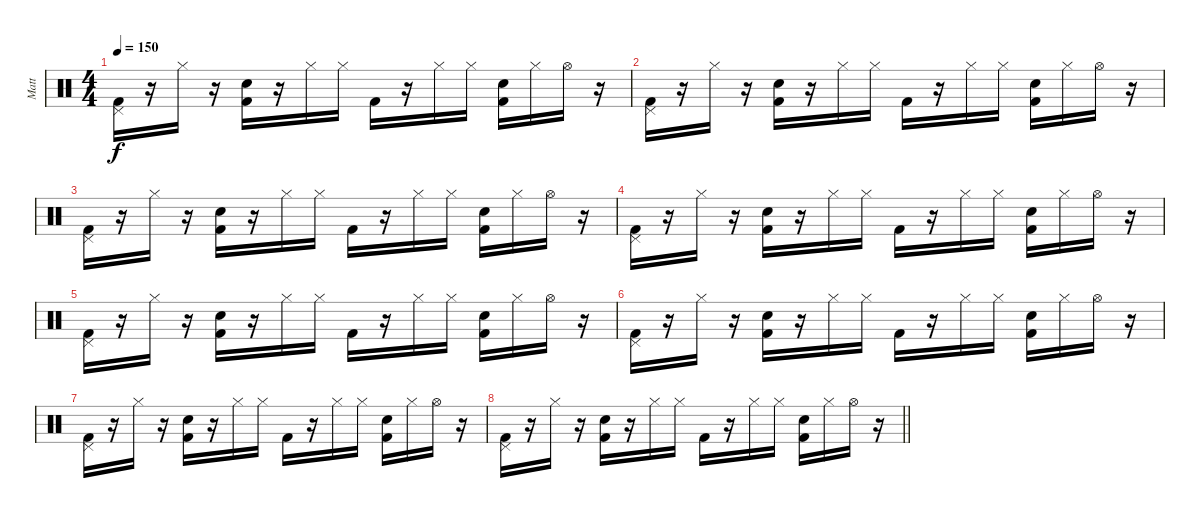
\track ("Matt" "Matt") {instrument percussion}
\staff {score}
\articulation defaults
\ts (4 4)
\tempo 150
\clef neutral
\ks c
("Pedal Hi-Hat (hit)" "Kick (hit) 2").16{dy f} r.16 "Hi-Hat (closed)".16 r.16 ("Snare (hit) 2" "Kick (hit) 2").16 r.16 "Hi-Hat (closed)".16 "Hi-Hat (closed)".16 "Kick (hit) 2".16 r.16 "Hi-Hat (closed)".16 "Hi-Hat (closed)".16 ("Snare (hit) 2" "Kick (hit) 2").16 "Hi-Hat (closed)".16 "Hi-Hat (open)".16 r.16 |
("Pedal Hi-Hat (hit)" "Kick (hit) 2").16 r.16 "Hi-Hat (closed)".16 r.16 ("Snare (hit) 2" "Kick (hit) 2").16 r.16 "Hi-Hat (closed)".16 "Hi-Hat (closed)".16 "Kick (hit) 2".16 r.16 "Hi-Hat (closed)".16 "Hi-Hat (closed)".16 ("Snare (hit) 2" "Kick (hit) 2").16 "Hi-Hat (closed)".16 "Hi-Hat (open)".16 r.16 |
("Pedal Hi-Hat (hit)" "Kick (hit) 2").16 r.16 "Hi-Hat (closed)".16 r.16 ("Snare (hit) 2" "Kick (hit) 2").16 r.16 "Hi-Hat (closed)".16 "Hi-Hat (closed)".16 "Kick (hit) 2".16 r.16 "Hi-Hat (closed)".16 "Hi-Hat (closed)".16 ("Snare (hit) 2" "Kick (hit) 2").16 "Hi-Hat (closed)".16 "Hi-Hat (open)".16 r.16 |
("Pedal Hi-Hat (hit)" "Kick (hit) 2").16 r.16 "Hi-Hat (closed)".16 r.16 ("Snare (hit) 2" "Kick (hit) 2").16 r.16 "Hi-Hat (closed)".16 "Hi-Hat (closed)".16 "Kick (hit) 2".16 r.16 "Hi-Hat (closed)".16 "Hi-Hat (closed)".16 ("Snare (hit) 2" "Kick (hit) 2").16 "Hi-Hat (closed)".16 "Hi-Hat (open)".16 r.16 |
("Pedal Hi-Hat (hit)" "Kick (hit) 2").16 r.16 "Hi-Hat (closed)".16 r.16 ("Snare (hit) 2" "Kick (hit) 2").16 r.16 "Hi-Hat (closed)".16 "Hi-Hat (closed)".16 "Kick (hit) 2".16 r.16 "Hi-Hat (closed)".16 "Hi-Hat (closed)".16 ("Snare (hit) 2" "Kick (hit) 2").16 "Hi-Hat (closed)".16 "Hi-Hat (open)".16 r.16 |
("Pedal Hi-Hat (hit)" "Kick (hit) 2").16 r.16 "Hi-Hat (closed)".16 r.16 ("Snare (hit) 2" "Kick (hit) 2").16 r.16 "Hi-Hat (closed)".16 "Hi-Hat (closed)".16 "Kick (hit) 2".16 r.16 "Hi-Hat (closed)".16 "Hi-Hat (closed)".16 ("Snare (hit) 2" "Kick (hit) 2").16 "Hi-Hat (closed)".16 "Hi-Hat (open)".16 r.16 |
("Pedal Hi-Hat (hit)" "Kick (hit) 2").16 r.16 "Hi-Hat (closed)".16 r.16 ("Snare (hit) 2" "Kick (hit) 2").16 r.16 "Hi-Hat (closed)".16 "Hi-Hat (closed)".16 "Kick (hit) 2".16 r.16 "Hi-Hat (closed)".16 "Hi-Hat (closed)".16 ("Snare (hit) 2" "Kick (hit) 2").16 "Hi-Hat (closed)".16 "Hi-Hat (open)".16 r.16 |
\barLineRight lightlight
("Pedal Hi-Hat (hit)" "Kick (hit) 2").16 r.16 "Hi-Hat (closed)".16 r.16 ("Snare (hit) 2" "Kick (hit) 2").16 r.16 "Hi-Hat (closed)".16 "Hi-Hat (closed)".16 "Kick (hit) 2".16 r.16 "Hi-Hat (closed)".16 "Hi-Hat (closed)".16 ("Snare (hit) 2" "Kick (hit) 2").16 "Hi-Hat (closed)".16 "Hi-Hat (open)".16 r.16
